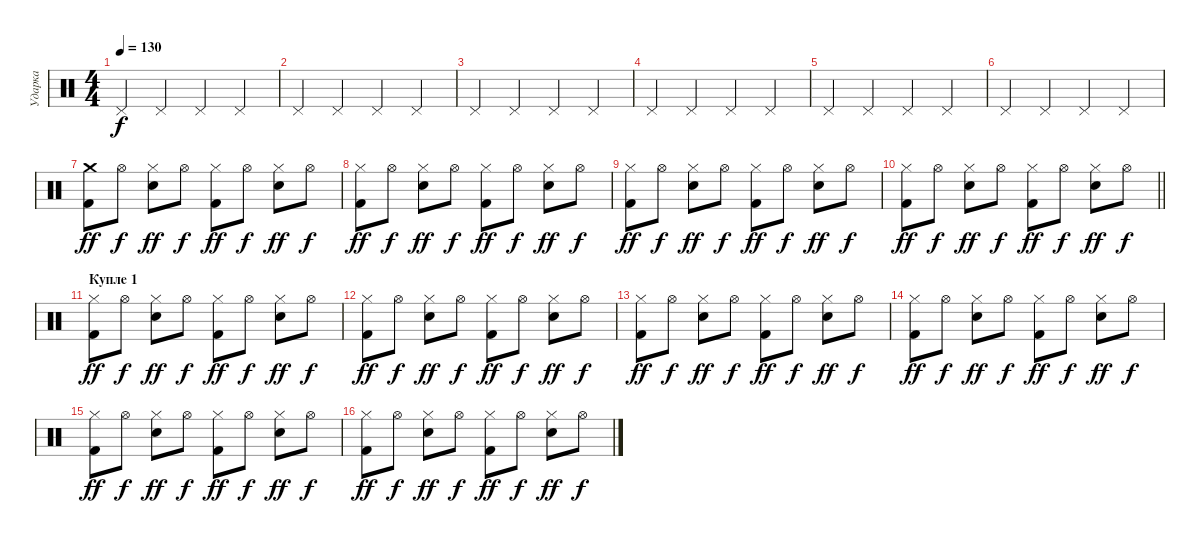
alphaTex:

\track ("Ударка" "Ударка") {instrument percussion}
\staff {score}
\articulation defaults
\ts (4 4)
\tempo 130
\clef neutral
\ks c "Pedal Hi-Hat (hit)".4{dy f} "Pedal Hi-Hat (hit)".4 "Pedal Hi-Hat (hit)".4 "Pedal Hi-Hat (hit)".4
|
"Pedal Hi-Hat (hit)".4 "Pedal Hi-Hat (hit)".4 "Pedal Hi-Hat (hit)".4 "Pedal Hi-Hat (hit)".4 |
"Pedal Hi-Hat (hit)".4 "Pedal Hi-Hat (hit)".4 "Pedal Hi-Hat (hit)".4 "Pedal Hi-Hat (hit)".4 |
"Pedal Hi-Hat (hit)".4 "Pedal Hi-Hat (hit)".4 "Pedal Hi-Hat (hit)".4 "Pedal Hi-Hat (hit)".4 |
"Pedal Hi-Hat (hit)".4 "Pedal Hi-Hat (hit)".4 "Pedal Hi-Hat (hit)".4 "Pedal Hi-Hat (hit)".4 |
"Pedal Hi-Hat (hit)".4 "Pedal Hi-Hat (hit)".4 "Pedal Hi-Hat (hit)".4 "Pedal Hi-Hat (hit)".4 |
("Crash medium (hit)" "Kick (hit) 2").8{dy ff} "Hi-Hat (open)".8{dy f} ("Hi-Hat (closed)" "Snare (hit) 2").8{dy ff} "Hi-Hat (open)".8{dy f} ("Hi-Hat (closed)" "Kick (hit) 2").8{dy ff} "Hi-Hat (open)".8{dy f} ("Hi-Hat (closed)" "Snare (hit) 2").8{dy ff} "Hi-Hat (open)".8{dy f} |
("Hi-Hat (closed)" "Kick (hit) 2").8{dy ff} "Hi-Hat (open)".8{dy f} ("Hi-Hat (closed)" "Snare (hit) 2").8{dy ff} "Hi-Hat (open)".8{dy f} ("Hi-Hat (closed)" "Kick (hit) 2").8{dy ff} "Hi-Hat (open)".8{dy f} ("Hi-Hat (closed)" "Snare (hit) 2").8{dy ff} "Hi-Hat (open)".8{dy f} |
("Hi-Hat (closed)" "Kick (hit) 2").8{dy ff} "Hi-Hat (open)".8{dy f} ("Hi-Hat (closed)" "Snare (hit) 2").8{dy ff} "Hi-Hat (open)".8{dy f} ("Hi-Hat (closed)" "Kick (hit) 2").8{dy ff} "Hi-Hat (open)".8{dy f} ("Hi-Hat (closed)" "Snare (hit) 2").8{dy ff} "Hi-Hat (open)".8{dy f} |
\barLineRight lightlight
("Hi-Hat (closed)" "Kick (hit) 2").8{dy ff} "Hi-Hat (open)".8{dy f} ("Hi-Hat (closed)" "Snare (hit) 2").8{dy ff} "Hi-Hat (open)".8{dy f} ("Hi-Hat (closed)" "Kick (hit) 2").8{dy ff} "Hi-Hat (open)".8{dy f} ("Hi-Hat (closed)" "Snare (hit) 2").8{dy ff} "Hi-Hat (open)".8{dy f} |
\section ("" "Купле 1")
("Hi-Hat (closed)" "Kick (hit) 2").8{dy ff} "Hi-Hat (open)".8{dy f} ("Hi-Hat (closed)" "Snare (hit) 2").8{dy ff} "Hi-Hat (open)".8{dy f} ("Hi-Hat (closed)" "Kick (hit) 2").8{dy ff} "Hi-Hat (open)".8{dy f} ("Hi-Hat (closed)" "Snare (hit) 2").8{dy ff} "Hi-Hat (open)".8{dy f} |
("Hi-Hat (closed)" "Kick (hit) 2").8{dy ff} "Hi-Hat (open)".8{dy f} ("Hi-Hat (closed)" "Snare (hit) 2").8{dy ff} "Hi-Hat (open)".8{dy f} ("Hi-Hat (closed)" "Kick (hit) 2").8{dy ff} "Hi-Hat (open)".8{dy f} ("Hi-Hat (closed)" "Snare (hit) 2").8{dy ff} "Hi-Hat (open)".8{dy f} |
("Hi-Hat (closed)" "Kick (hit) 2").8{dy ff} "Hi-Hat (open)".8{dy f} ("Hi-Hat (closed)" "Snare (hit) 2").8{dy ff} "Hi-Hat (open)".8{dy f} ("Hi-Hat (closed)" "Kick (hit) 2").8{dy ff} "Hi-Hat (open)".8{dy f} ("Hi-Hat (closed)" "Snare (hit) 2").8{dy ff} "Hi-Hat (open)".8{dy f} |
("Hi-Hat (closed)" "Kick (hit) 2").8{dy ff} "Hi-Hat (open)".8{dy f} ("Hi-Hat (closed)" "Snare (hit) 2").8{dy ff} "Hi-Hat (open)".8{dy f} ("Hi-Hat (closed)" "Kick (hit) 2").8{dy ff} "Hi-Hat (open)".8{dy f} ("Hi-Hat (closed)" "Snare (hit) 2").8{dy ff} "Hi-Hat (open)".8{dy f} |
("Hi-Hat (closed)" "Kick (hit) 2").8{dy ff} "Hi-Hat (open)".8{dy f} ("Hi-Hat (closed)" "Snare (hit) 2").8{dy ff} "Hi-Hat (open)".8{dy f} ("Hi-Hat (closed)" "Kick (hit) 2").8{dy ff} "Hi-Hat (open)".8{dy f} ("Hi-Hat (closed)" "Snare (hit) 2").8{dy ff} "Hi-Hat (open)".8{dy f} |
("Hi-Hat (closed)" "Kick (hit) 2").8{dy ff} "Hi-Hat (open)".8{dy f} ("Hi-Hat (closed)" "Snare (hit) 2").8{dy ff} "Hi-Hat (open)".8{dy f} ("Hi-Hat (closed)" "Kick (hit) 2").8{dy ff} "Hi-Hat (open)".8{dy f} ("Hi-Hat (closed)" "Snare (hit) 2").8{dy ff} "Hi-Hat (open)".8{dy f}
